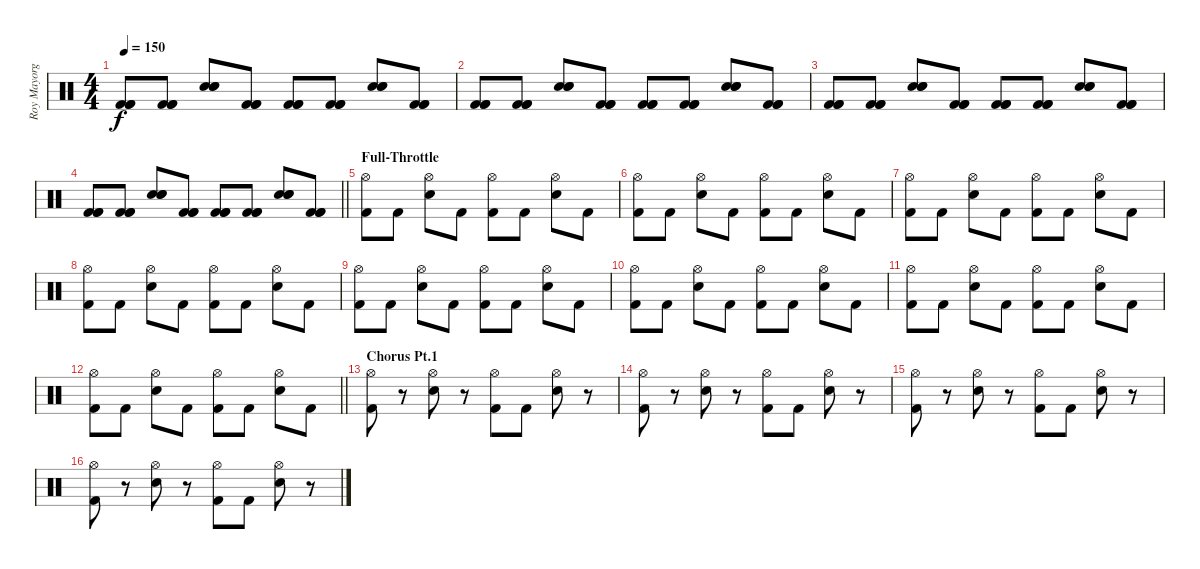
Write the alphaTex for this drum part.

\track ("Roy Mayorga" "Roy Mayorg") {instrument percussion}
\staff {score}
\articulation defaults
\ts (4 4)
\tempo 150
\clef neutral
\ks c
("Kick (hit) 2" "Kick (hit) 2" "Kick (hit) 2").8{dy f} ("Kick (hit) 2" "Kick (hit) 2" "Kick (hit) 2").8 ("Snare (hit) 2" "Snare (hit) 2" "Snare (hit) 2").8 ("Kick (hit) 2" "Kick (hit) 2" "Kick (hit) 2").8 ("Kick (hit) 2" "Kick (hit) 2" "Kick (hit) 2").8 ("Kick (hit) 2" "Kick (hit) 2" "Kick (hit) 2").8 ("Snare (hit) 2" "Snare (hit) 2" "Snare (hit) 2").8 ("Kick (hit) 2" "Kick (hit) 2" "Kick (hit) 2").8 |
("Kick (hit) 2" "Kick (hit) 2" "Kick (hit) 2").8 ("Kick (hit) 2" "Kick (hit) 2" "Kick (hit) 2").8 ("Snare (hit) 2" "Snare (hit) 2" "Snare (hit) 2").8 ("Kick (hit) 2" "Kick (hit) 2" "Kick (hit) 2").8 ("Kick (hit) 2" "Kick (hit) 2" "Kick (hit) 2").8 ("Kick (hit) 2" "Kick (hit) 2" "Kick (hit) 2").8 ("Snare (hit) 2" "Snare (hit) 2" "Snare (hit) 2").8 ("Kick (hit) 2" "Kick (hit) 2" "Kick (hit) 2").8 |
("Kick (hit) 2" "Kick (hit) 2" "Kick (hit) 2").8 ("Kick (hit) 2" "Kick (hit) 2" "Kick (hit) 2").8 ("Snare (hit) 2" "Snare (hit) 2" "Snare (hit) 2").8 ("Kick (hit) 2" "Kick (hit) 2" "Kick (hit) 2").8 ("Kick (hit) 2" "Kick (hit) 2" "Kick (hit) 2").8 ("Kick (hit) 2" "Kick (hit) 2" "Kick (hit) 2").8 ("Snare (hit) 2" "Snare (hit) 2" "Snare (hit) 2").8 ("Kick (hit) 2" "Kick (hit) 2" "Kick (hit) 2").8 |
\barLineRight lightlight
("Kick (hit) 2" "Kick (hit) 2" "Kick (hit) 2").8 ("Kick (hit) 2" "Kick (hit) 2" "Kick (hit) 2").8 ("Snare (hit) 2" "Snare (hit) 2" "Snare (hit) 2").8 ("Kick (hit) 2" "Kick (hit) 2" "Kick (hit) 2").8 ("Kick (hit) 2" "Kick (hit) 2" "Kick (hit) 2").8 ("Kick (hit) 2" "Kick (hit) 2" "Kick (hit) 2").8 ("Snare (hit) 2" "Snare (hit) 2" "Snare (hit) 2").8 ("Kick (hit) 2" "Kick (hit) 2" "Kick (hit) 2").8 |
\section ("" "Full-Throttle")
("Hi-Hat (open)" "Kick (hit) 2").8 "Kick (hit) 2".8 ("Hi-Hat (open)" "Electric Snare (hit)").8 "Kick (hit) 2".8 ("Hi-Hat (open)" "Kick (hit) 2").8 "Kick (hit) 2".8 ("Hi-Hat (open)" "Electric Snare (hit)").8 "Kick (hit) 2".8 |
("Hi-Hat (open)" "Kick (hit) 2").8 "Kick (hit) 2".8 ("Hi-Hat (open)" "Electric Snare (hit)").8 "Kick (hit) 2".8 ("Hi-Hat (open)" "Kick (hit) 2").8 "Kick (hit) 2".8 ("Hi-Hat (open)" "Electric Snare (hit)").8 "Kick (hit) 2".8 |
("Hi-Hat (open)" "Kick (hit) 2").8 "Kick (hit) 2".8 ("Hi-Hat (open)" "Electric Snare (hit)").8 "Kick (hit) 2".8 ("Hi-Hat (open)" "Kick (hit) 2").8 "Kick (hit) 2".8 ("Hi-Hat (open)" "Electric Snare (hit)").8 "Kick (hit) 2".8 |
("Hi-Hat (open)" "Kick (hit) 2").8 "Kick (hit) 2".8 ("Hi-Hat (open)" "Electric Snare (hit)").8 "Kick (hit) 2".8 ("Hi-Hat (open)" "Kick (hit) 2").8 "Kick (hit) 2".8 ("Hi-Hat (open)" "Electric Snare (hit)").8 "Kick (hit) 2".8 |
("Hi-Hat (open)" "Kick (hit) 2").8 "Kick (hit) 2".8 ("Hi-Hat (open)" "Electric Snare (hit)").8 "Kick (hit) 2".8 ("Hi-Hat (open)" "Kick (hit) 2").8 "Kick (hit) 2".8 ("Hi-Hat (open)" "Electric Snare (hit)").8 "Kick (hit) 2".8 |
("Hi-Hat (open)" "Kick (hit) 2").8 "Kick (hit) 2".8 ("Hi-Hat (open)" "Electric Snare (hit)").8 "Kick (hit) 2".8 ("Hi-Hat (open)" "Kick (hit) 2").8 "Kick (hit) 2".8 ("Hi-Hat (open)" "Electric Snare (hit)").8 "Kick (hit) 2".8 |
("Hi-Hat (open)" "Kick (hit) 2").8 "Kick (hit) 2".8 ("Hi-Hat (open)" "Electric Snare (hit)").8 "Kick (hit) 2".8 ("Hi-Hat (open)" "Kick (hit) 2").8 "Kick (hit) 2".8 ("Hi-Hat (open)" "Electric Snare (hit)").8 "Kick (hit) 2".8 |
\barLineRight lightlight
("Hi-Hat (open)" "Kick (hit) 2").8 "Kick (hit) 2".8 ("Hi-Hat (open)" "Electric Snare (hit)").8 "Kick (hit) 2".8 ("Hi-Hat (open)" "Kick (hit) 2").8 "Kick (hit) 2".8 ("Hi-Hat (open)" "Electric Snare (hit)").8 "Kick (hit) 2".8 |
\section ("" "Chorus Pt.1")
("Hi-Hat (open)" "Kick (hit) 2").8 r.8 ("Hi-Hat (open)" "Electric Snare (hit)").8 r.8 ("Hi-Hat (open)" "Kick (hit) 2").8 "Kick (hit) 2".8 ("Hi-Hat (open)" "Electric Snare (hit)").8 r.8 |
("Hi-Hat (open)" "Kick (hit) 2").8 r.8 ("Hi-Hat (open)" "Electric Snare (hit)").8 r.8 ("Hi-Hat (open)" "Kick (hit) 2").8 "Kick (hit) 2".8 ("Hi-Hat (open)" "Electric Snare (hit)").8 r.8 |
("Hi-Hat (open)" "Kick (hit) 2").8 r.8 ("Hi-Hat (open)" "Electric Snare (hit)").8 r.8 ("Hi-Hat (open)" "Kick (hit) 2").8 "Kick (hit) 2".8 ("Hi-Hat (open)" "Electric Snare (hit)").8 r.8 |
("Hi-Hat (open)" "Kick (hit) 2").8 r.8 ("Hi-Hat (open)" "Electric Snare (hit)").8 r.8 ("Hi-Hat (open)" "Kick (hit) 2").8 "Kick (hit) 2".8 ("Hi-Hat (open)" "Electric Snare (hit)").8 r.8
